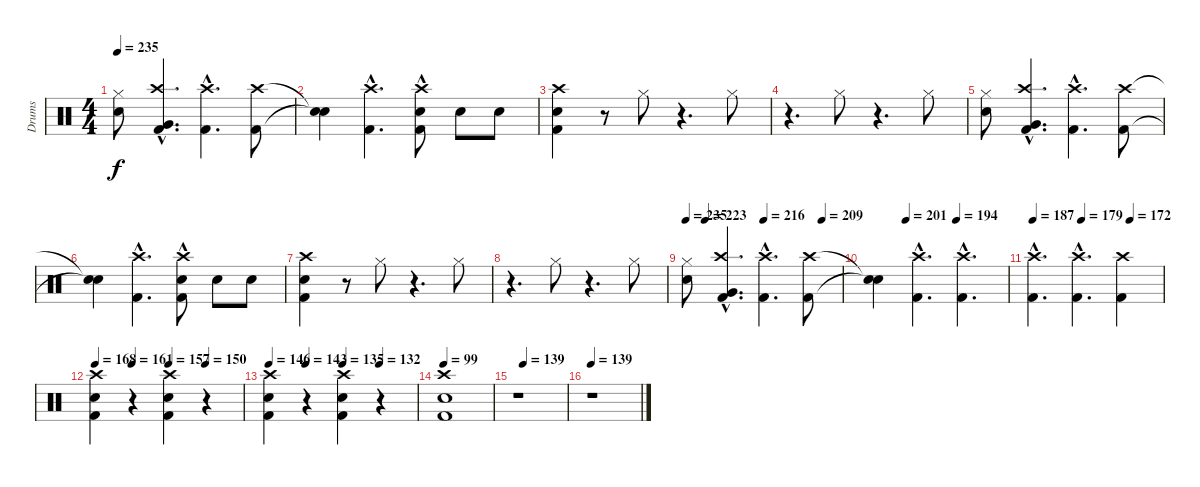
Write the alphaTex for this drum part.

\track ("Drums" "Drums") {instrument percussion}
\staff {score}
\articulation defaults
\ts (4 4)
\tempo 235
\clef neutral
\ks c
("Hi-Hat (closed)" "Snare (hit) 2").8{dy f} ("Kick (hit) 2"{hac} "Crash high (hit)"{hac} "Very Low Tom (hit)").4{d} ("Kick (hit) 2"{hac} "Crash high (hit)"{hac}).4{d} ("Kick (hit) 2" "Crash high (hit)").8 |
("Snare (hit)"{t} "Snare (hit)"{t}).4 ("Kick (hit) 2"{hac} "Crash high (hit)"{hac}).4{d} ("Kick (hit) 2"{hac} "Crash high (hit)"{hac} "Snare (hit) 2").8 "Snare (hit) 2".8 "Snare (hit) 2".8 |
("Crash high (hit)" "Kick (hit) 2" "Snare (hit) 2").4 r.8 "Hi-Hat (closed)".8 r.4{d} "Hi-Hat (closed)".8 |
r.4{d} "Hi-Hat (closed)".8 r.4{d} "Hi-Hat (closed)".8 |
("Hi-Hat (closed)" "Snare (hit) 2").8 ("Kick (hit) 2"{hac} "Crash high (hit)"{hac} "Very Low Tom (hit)").4{d} ("Kick (hit) 2"{hac} "Crash high (hit)"{hac}).4{d} ("Kick (hit) 2" "Crash high (hit)").8 |
("Snare (hit)"{t} "Snare (hit)"{t}).4 ("Kick (hit) 2"{hac} "Crash high (hit)"{hac}).4{d} ("Kick (hit) 2"{hac} "Crash high (hit)"{hac} "Snare (hit) 2").8 "Snare (hit) 2".8 "Snare (hit) 2".8 |
("Crash high (hit)" "Kick (hit) 2" "Snare (hit) 2").4 r.8 "Hi-Hat (closed)".8 r.4{d} "Hi-Hat (closed)".8 |
r.4{d} "Hi-Hat (closed)".8 r.4{d} "Hi-Hat (closed)".8 |
\tempo 235
\tempo (223 0.125)
\tempo (216 0.5)
\tempo (209 0.875)
("Hi-Hat (closed)" "Snare (hit) 2").8 ("Kick (hit) 2"{hac} "Crash high (hit)"{hac} "Very Low Tom (hit)").4{d} ("Kick (hit) 2"{hac} "Crash high (hit)"{hac}).4{d} ("Kick (hit) 2" "Crash high (hit)").8 |
\tempo (201 0.25)
\tempo (194 0.625)
("Snare (hit)"{t} "Snare (hit)"{t}).4 ("Kick (hit) 2"{hac} "Crash high (hit)"{hac}).4{d} ("Kick (hit) 2"{hac} "Crash high (hit)"{hac}).4{d} |
\tempo 187
\tempo (179 0.375)
\tempo (172 0.75)
("Kick (hit) 2"{hac} "Crash high (hit)"{hac}).4{d} ("Kick (hit) 2"{hac} "Crash high (hit)"{hac}).4{d} ("Kick (hit) 2" "Crash high (hit)").4 |
\tempo 168
\tempo (161 0.25)
\tempo (157 0.5)
\tempo (150 0.75)
("Kick (hit) 2" "Snare (hit) 2" "Crash high (hit)").4 r.4 ("Kick (hit) 2" "Snare (hit) 2" "Crash high (hit)").4 r.4 |
\tempo 146
\tempo (143 0.25)
\tempo (135 0.5)
\tempo (132 0.75)
("Kick (hit) 2" "Snare (hit) 2" "Crash high (hit)").4 r.4 ("Kick (hit) 2" "Snare (hit) 2" "Crash high (hit)").4 r.4 |
\tempo 99
("Kick (hit) 2" "Crash high (hit)" "Snare (hit) 2").1 |
\tempo (139 0.125)
r.1 |
\tempo 139
r.1
